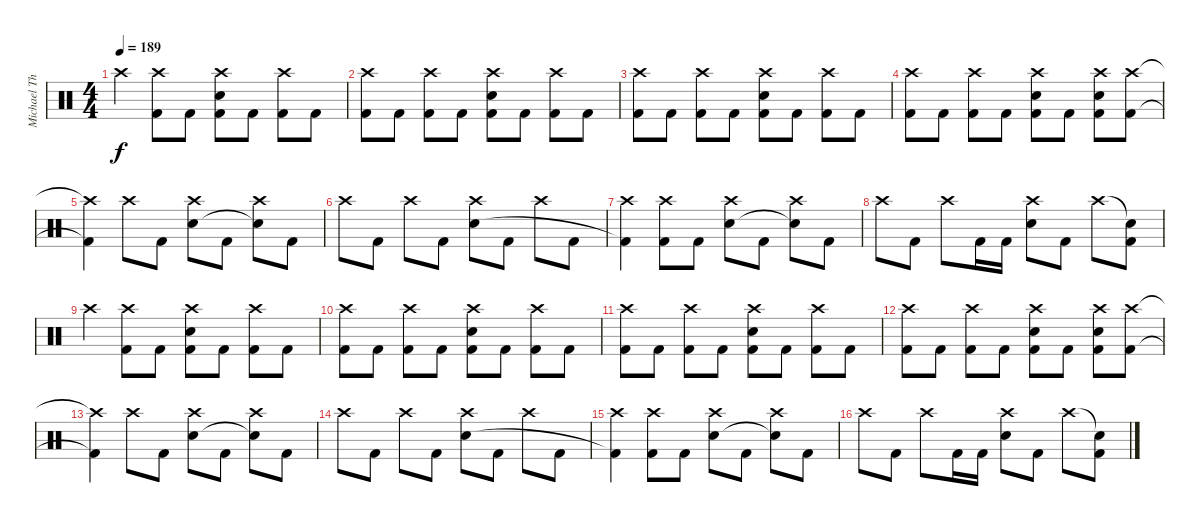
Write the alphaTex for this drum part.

\track ("Michael Thomas" "Michael Th") {instrument percussion}
\staff {score}
\articulation defaults
\ts (4 4)
\tempo 189
\clef neutral
\ks c "Crash high (hit)".4{dy f}
("Crash high (hit)" "Kick (hit) 2").8 "Kick (hit) 2".8 ("Crash high (hit)" "Electric Snare (hit)" "Kick (hit) 2").8 "Kick (hit) 2".8 ("Crash high (hit)" "Kick (hit) 2").8 "Kick (hit) 2".8 |
("Crash high (hit)" "Kick (hit) 2").8 "Kick (hit) 2".8 ("Crash high (hit)" "Kick (hit) 2").8 "Kick (hit) 2".8 ("Crash high (hit)" "Electric Snare (hit)" "Kick (hit) 2").8 "Kick (hit) 2".8 ("Crash high (hit)" "Kick (hit) 2").8 "Kick (hit) 2".8 |
("Crash high (hit)" "Kick (hit) 2").8 "Kick (hit) 2".8 ("Crash high (hit)" "Kick (hit) 2").8 "Kick (hit) 2".8 ("Crash high (hit)" "Electric Snare (hit)" "Kick (hit) 2").8 "Kick (hit) 2".8 ("Crash high (hit)" "Kick (hit) 2").8 "Kick (hit) 2".8 |
("Crash high (hit)" "Kick (hit) 2").8 "Kick (hit) 2".8 ("Crash high (hit)" "Kick (hit) 2").8 "Kick (hit) 2".8 ("Crash high (hit)" "Electric Snare (hit)" "Kick (hit) 2").8 "Kick (hit) 2".8 ("Crash high (hit)" "Electric Snare (hit)" "Kick (hit) 2").8 ("Crash high (hit)" "Kick (hit) 2").8 |
("Crash high (hit)"{t} "Kick (hit) 2"{t}).4 "Crash high (hit)".8 "Kick (hit) 2".8 ("Crash high (hit)" "Electric Snare (hit)").8 "Kick (hit) 2".8 ("Crash high (hit)" "Snare (hit)"{t}).8 "Kick (hit) 2".8 |
"Crash high (hit)".8 "Kick (hit) 2".8 "Crash high (hit)".8 "Kick (hit) 2".8 ("Crash high (hit)" "Electric Snare (hit)").8 "Kick (hit) 2".8 "Crash high (hit)".8 "Kick (hit) 2".8 |
("Crash high (hit)" "Kick (hit) 2"{t}).4 ("Crash high (hit)" "Kick (hit) 2").8 "Kick (hit) 2".8 ("Crash high (hit)" "Electric Snare (hit)").8 "Kick (hit) 2".8 ("Crash high (hit)" "Snare (hit)"{t}).8 "Kick (hit) 2".8 |
"Crash high (hit)".8 "Kick (hit) 2".8 "Crash high (hit)".8 "Kick (hit) 2".16 "Kick (hit) 2".16 ("Crash high (hit)" "Electric Snare (hit)").8 "Kick (hit) 2".8 "Crash high (hit)".8 ("Snare (hit)"{t} "Kick (hit) 2").8 |
"Crash high (hit)".4 ("Crash high (hit)" "Kick (hit) 2").8 "Kick (hit) 2".8 ("Crash high (hit)" "Electric Snare (hit)" "Kick (hit) 2").8 "Kick (hit) 2".8 ("Crash high (hit)" "Kick (hit) 2").8 "Kick (hit) 2".8 |
("Crash high (hit)" "Kick (hit) 2").8 "Kick (hit) 2".8 ("Crash high (hit)" "Kick (hit) 2").8 "Kick (hit) 2".8 ("Crash high (hit)" "Electric Snare (hit)" "Kick (hit) 2").8 "Kick (hit) 2".8 ("Crash high (hit)" "Kick (hit) 2").8 "Kick (hit) 2".8 |
("Crash high (hit)" "Kick (hit) 2").8 "Kick (hit) 2".8 ("Crash high (hit)" "Kick (hit) 2").8 "Kick (hit) 2".8 ("Crash high (hit)" "Electric Snare (hit)" "Kick (hit) 2").8 "Kick (hit) 2".8 ("Crash high (hit)" "Kick (hit) 2").8 "Kick (hit) 2".8 |
("Crash high (hit)" "Kick (hit) 2").8 "Kick (hit) 2".8 ("Crash high (hit)" "Kick (hit) 2").8 "Kick (hit) 2".8 ("Crash high (hit)" "Electric Snare (hit)" "Kick (hit) 2").8 "Kick (hit) 2".8 ("Crash high (hit)" "Electric Snare (hit)" "Kick (hit) 2").8 ("Crash high (hit)" "Kick (hit) 2").8 |
("Crash high (hit)"{t} "Kick (hit) 2"{t}).4 "Crash high (hit)".8 "Kick (hit) 2".8 ("Crash high (hit)" "Electric Snare (hit)").8 "Kick (hit) 2".8 ("Crash high (hit)" "Snare (hit)"{t}).8 "Kick (hit) 2".8 |
"Crash high (hit)".8 "Kick (hit) 2".8 "Crash high (hit)".8 "Kick (hit) 2".8 ("Crash high (hit)" "Electric Snare (hit)").8 "Kick (hit) 2".8 "Crash high (hit)".8 "Kick (hit) 2".8 |
("Crash high (hit)" "Kick (hit) 2"{t}).4 ("Crash high (hit)" "Kick (hit) 2").8 "Kick (hit) 2".8 ("Crash high (hit)" "Electric Snare (hit)").8 "Kick (hit) 2".8 ("Crash high (hit)" "Snare (hit)"{t}).8 "Kick (hit) 2".8 |
"Crash high (hit)".8 "Kick (hit) 2".8 "Crash high (hit)".8 "Kick (hit) 2".16 "Kick (hit) 2".16 ("Crash high (hit)" "Electric Snare (hit)").8 "Kick (hit) 2".8 "Crash high (hit)".8 ("Snare (hit)"{t} "Kick (hit) 2").8
